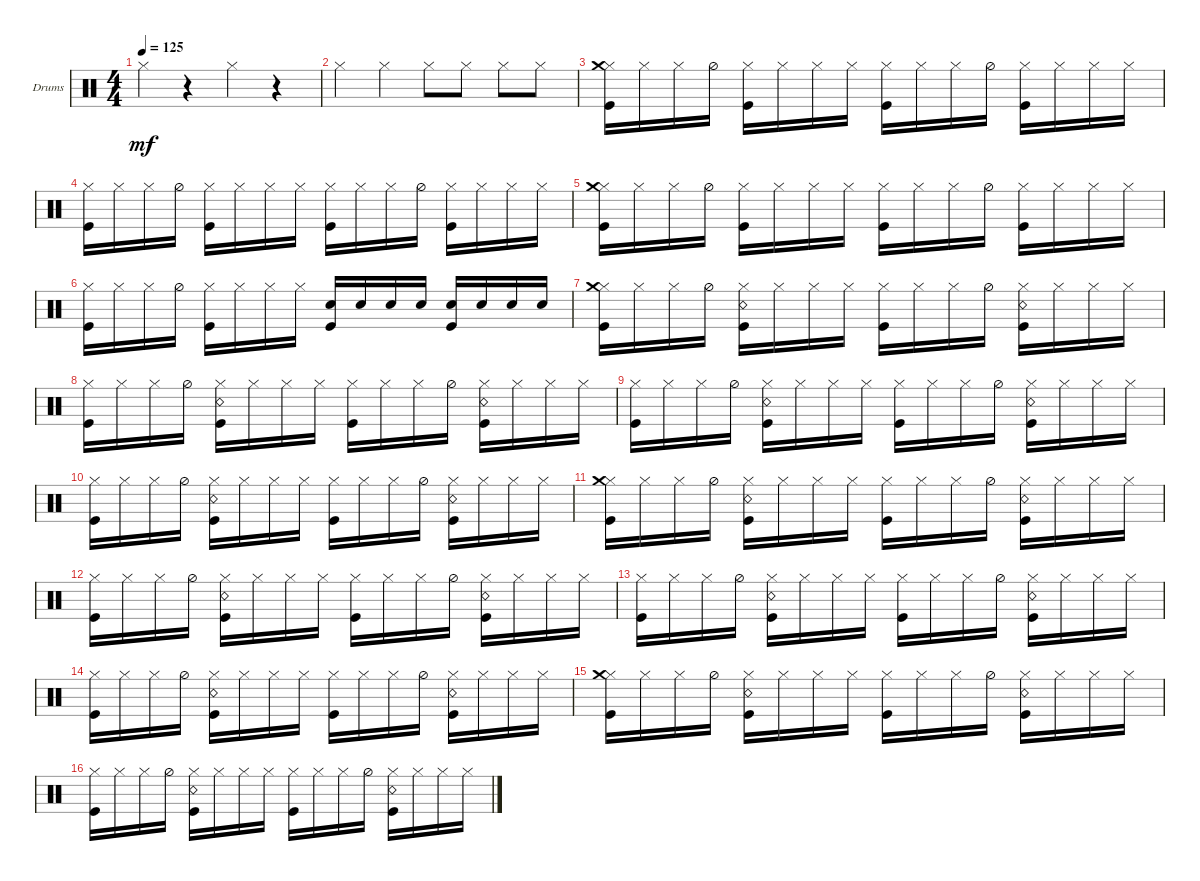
\defaultSystemsLayout 4
\bracketExtendMode groupsimilarinstruments
\firstSystemTrackNameOrientation horizontal
\otherSystemsTrackNameOrientation horizontal
\track ("Drumkit" "Drums") {instrument percussion}
\staff {score}
\articulation defaults
\ts (4 4)
\tempo 125
\clef neutral
\ks c "Hi-Hat (closed)".4{dy mf}
r.4 "Hi-Hat (closed)".4 r.4 |
"Hi-Hat (closed)".4 "Hi-Hat (closed)".4 "Hi-Hat (closed)".8 "Hi-Hat (closed)".8 "Hi-Hat (closed)".8 "Hi-Hat (closed)".8 |
("Hi-Hat (closed)" "Kick (hit)" "Crash medium (hit)").16 "Hi-Hat (closed)".16 "Hi-Hat (closed)".16 "Hi-Hat (half)".16 ("Hi-Hat (closed)" "Kick (hit)").16 "Hi-Hat (closed)".16 "Hi-Hat (closed)".16 "Hi-Hat (closed)".16 ("Hi-Hat (closed)" "Kick (hit)").16 "Hi-Hat (closed)".16 "Hi-Hat (closed)".16 "Hi-Hat (half)".16 ("Hi-Hat (closed)" "Kick (hit)").16 "Hi-Hat (closed)".16 "Hi-Hat (closed)".16 "Hi-Hat (closed)".16 |
("Hi-Hat (closed)" "Kick (hit)").16 "Hi-Hat (closed)".16 "Hi-Hat (closed)".16 "Hi-Hat (half)".16 ("Hi-Hat (closed)" "Kick (hit)").16 "Hi-Hat (closed)".16 "Hi-Hat (closed)".16 "Hi-Hat (closed)".16 ("Hi-Hat (closed)" "Kick (hit)").16 "Hi-Hat (closed)".16 "Hi-Hat (closed)".16 "Hi-Hat (half)".16 ("Hi-Hat (closed)" "Kick (hit)").16 "Hi-Hat (closed)".16 "Hi-Hat (closed)".16 "Hi-Hat (closed)".16 |
("Hi-Hat (closed)" "Kick (hit)" "Crash medium (hit)").16 "Hi-Hat (closed)".16 "Hi-Hat (closed)".16 "Hi-Hat (half)".16 ("Hi-Hat (closed)" "Kick (hit)").16 "Hi-Hat (closed)".16 "Hi-Hat (closed)".16 "Hi-Hat (closed)".16 ("Hi-Hat (closed)" "Kick (hit)").16 "Hi-Hat (closed)".16 "Hi-Hat (closed)".16 "Hi-Hat (half)".16 ("Hi-Hat (closed)" "Kick (hit)").16 "Hi-Hat (closed)".16 "Hi-Hat (closed)".16 "Hi-Hat (closed)".16 |
("Hi-Hat (closed)" "Kick (hit)").16 "Hi-Hat (closed)".16 "Hi-Hat (closed)".16 "Hi-Hat (half)".16 ("Hi-Hat (closed)" "Kick (hit)").16 "Hi-Hat (closed)".16 "Hi-Hat (closed)".16 "Hi-Hat (closed)".16 ("Kick (hit)" "Snare (hit) 2").16 "Snare (hit) 2".16 "Snare (hit) 2".16 "Snare (hit) 2".16 ("Kick (hit)" "Snare (hit) 2").16 "Snare (hit) 2".16 "Snare (hit) 2".16 "Snare (hit) 2".16 |
("Hi-Hat (closed)" "Kick (hit)" "Crash medium (hit)").16 "Hi-Hat (closed)".16 "Hi-Hat (closed)".16 "Hi-Hat (half)".16 ("Hi-Hat (closed)" "Kick (hit)" "Snare (rim shot)").16 "Hi-Hat (closed)".16 "Hi-Hat (closed)".16 "Hi-Hat (closed)".16 ("Hi-Hat (closed)" "Kick (hit)").16 "Hi-Hat (closed)".16 "Hi-Hat (closed)".16 "Hi-Hat (half)".16 ("Hi-Hat (closed)" "Kick (hit)" "Snare (rim shot)").16 "Hi-Hat (closed)".16 "Hi-Hat (closed)".16 "Hi-Hat (closed)".16 |
("Hi-Hat (closed)" "Kick (hit)").16 "Hi-Hat (closed)".16 "Hi-Hat (closed)".16 "Hi-Hat (half)".16 ("Hi-Hat (closed)" "Kick (hit)" "Snare (rim shot)").16 "Hi-Hat (closed)".16 "Hi-Hat (closed)".16 "Hi-Hat (closed)".16 ("Hi-Hat (closed)" "Kick (hit)").16 "Hi-Hat (closed)".16 "Hi-Hat (closed)".16 "Hi-Hat (half)".16 ("Hi-Hat (closed)" "Kick (hit)" "Snare (rim shot)").16 "Hi-Hat (closed)".16 "Hi-Hat (closed)".16 "Hi-Hat (closed)".16 |
("Hi-Hat (closed)" "Kick (hit)").16 "Hi-Hat (closed)".16 "Hi-Hat (closed)".16 "Hi-Hat (half)".16 ("Hi-Hat (closed)" "Kick (hit)" "Snare (rim shot)").16 "Hi-Hat (closed)".16 "Hi-Hat (closed)".16 "Hi-Hat (closed)".16 ("Hi-Hat (closed)" "Kick (hit)").16 "Hi-Hat (closed)".16 "Hi-Hat (closed)".16 "Hi-Hat (half)".16 ("Hi-Hat (closed)" "Kick (hit)" "Snare (rim shot)").16 "Hi-Hat (closed)".16 "Hi-Hat (closed)".16 "Hi-Hat (closed)".16 |
("Hi-Hat (closed)" "Kick (hit)").16 "Hi-Hat (closed)".16 "Hi-Hat (closed)".16 "Hi-Hat (half)".16 ("Hi-Hat (closed)" "Kick (hit)" "Snare (rim shot)").16 "Hi-Hat (closed)".16 "Hi-Hat (closed)".16 "Hi-Hat (closed)".16 ("Hi-Hat (closed)" "Kick (hit)").16 "Hi-Hat (closed)".16 "Hi-Hat (closed)".16 "Hi-Hat (half)".16 ("Hi-Hat (closed)" "Kick (hit)" "Snare (rim shot)").16 "Hi-Hat (closed)".16 "Hi-Hat (closed)".16 "Hi-Hat (closed)".16 |
("Hi-Hat (closed)" "Kick (hit)" "Crash medium (hit)").16 "Hi-Hat (closed)".16 "Hi-Hat (closed)".16 "Hi-Hat (half)".16 ("Hi-Hat (closed)" "Kick (hit)" "Snare (rim shot)").16 "Hi-Hat (closed)".16 "Hi-Hat (closed)".16 "Hi-Hat (closed)".16 ("Hi-Hat (closed)" "Kick (hit)").16 "Hi-Hat (closed)".16 "Hi-Hat (closed)".16 "Hi-Hat (half)".16 ("Hi-Hat (closed)" "Kick (hit)" "Snare (rim shot)").16 "Hi-Hat (closed)".16 "Hi-Hat (closed)".16 "Hi-Hat (closed)".16 |
("Hi-Hat (closed)" "Kick (hit)").16 "Hi-Hat (closed)".16 "Hi-Hat (closed)".16 "Hi-Hat (half)".16 ("Hi-Hat (closed)" "Kick (hit)" "Snare (rim shot)").16 "Hi-Hat (closed)".16 "Hi-Hat (closed)".16 "Hi-Hat (closed)".16 ("Hi-Hat (closed)" "Kick (hit)").16 "Hi-Hat (closed)".16 "Hi-Hat (closed)".16 "Hi-Hat (half)".16 ("Hi-Hat (closed)" "Kick (hit)" "Snare (rim shot)").16 "Hi-Hat (closed)".16 "Hi-Hat (closed)".16 "Hi-Hat (closed)".16 |
("Hi-Hat (closed)" "Kick (hit)").16 "Hi-Hat (closed)".16 "Hi-Hat (closed)".16 "Hi-Hat (half)".16 ("Hi-Hat (closed)" "Kick (hit)" "Snare (rim shot)").16 "Hi-Hat (closed)".16 "Hi-Hat (closed)".16 "Hi-Hat (closed)".16 ("Hi-Hat (closed)" "Kick (hit)").16 "Hi-Hat (closed)".16 "Hi-Hat (closed)".16 "Hi-Hat (half)".16 ("Hi-Hat (closed)" "Kick (hit)" "Snare (rim shot)").16 "Hi-Hat (closed)".16 "Hi-Hat (closed)".16 "Hi-Hat (closed)".16 |
("Hi-Hat (closed)" "Kick (hit)").16 "Hi-Hat (closed)".16 "Hi-Hat (closed)".16 "Hi-Hat (half)".16 ("Hi-Hat (closed)" "Kick (hit)" "Snare (rim shot)").16 "Hi-Hat (closed)".16 "Hi-Hat (closed)".16 "Hi-Hat (closed)".16 ("Hi-Hat (closed)" "Kick (hit)").16 "Hi-Hat (closed)".16 "Hi-Hat (closed)".16 "Hi-Hat (half)".16 ("Hi-Hat (closed)" "Kick (hit)" "Snare (rim shot)").16 "Hi-Hat (closed)".16 "Hi-Hat (closed)".16 "Hi-Hat (closed)".16 |
("Hi-Hat (closed)" "Kick (hit)" "Crash medium (hit)").16 "Hi-Hat (closed)".16 "Hi-Hat (closed)".16 "Hi-Hat (half)".16 ("Hi-Hat (closed)" "Kick (hit)" "Snare (rim shot)").16 "Hi-Hat (closed)".16 "Hi-Hat (closed)".16 "Hi-Hat (closed)".16 ("Hi-Hat (closed)" "Kick (hit)").16 "Hi-Hat (closed)".16 "Hi-Hat (closed)".16 "Hi-Hat (half)".16 ("Hi-Hat (closed)" "Kick (hit)" "Snare (rim shot)").16 "Hi-Hat (closed)".16 "Hi-Hat (closed)".16 "Hi-Hat (closed)".16 |
("Hi-Hat (closed)" "Kick (hit)").16 "Hi-Hat (closed)".16 "Hi-Hat (closed)".16 "Hi-Hat (half)".16 ("Hi-Hat (closed)" "Kick (hit)" "Snare (rim shot)").16 "Hi-Hat (closed)".16 "Hi-Hat (closed)".16 "Hi-Hat (closed)".16 ("Hi-Hat (closed)" "Kick (hit)").16 "Hi-Hat (closed)".16 "Hi-Hat (closed)".16 "Hi-Hat (half)".16 ("Hi-Hat (closed)" "Kick (hit)" "Snare (rim shot)").16 "Hi-Hat (closed)".16 "Hi-Hat (closed)".16 "Hi-Hat (closed)".16
